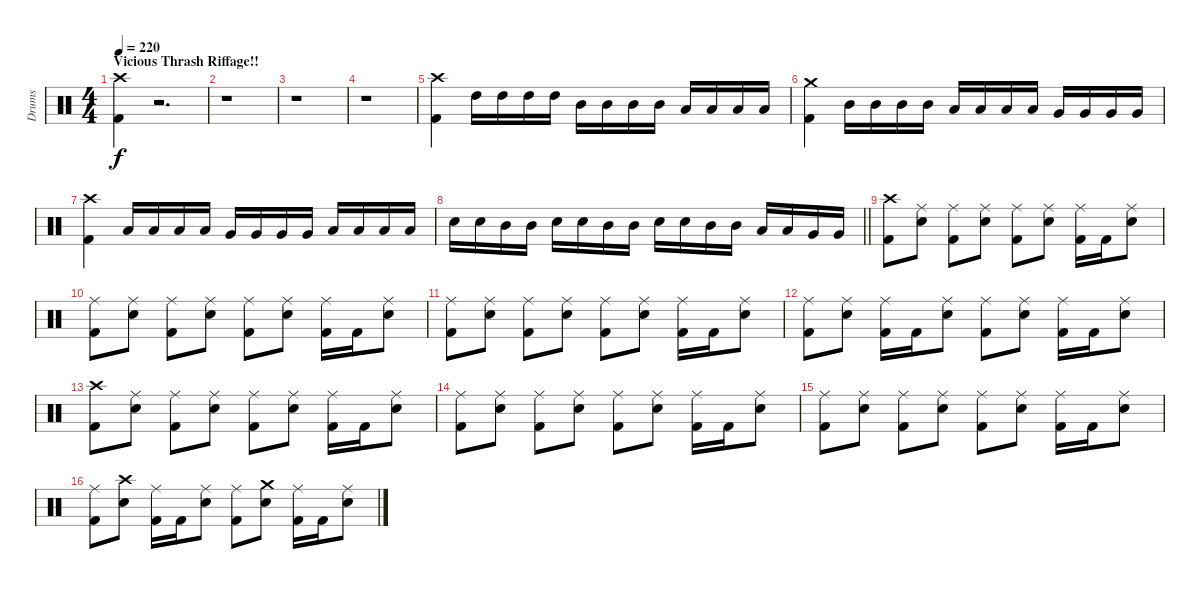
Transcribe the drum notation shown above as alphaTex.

\track ("Drums" "Drums") {instrument percussion}
\staff {score}
\articulation defaults
\ts (4 4)
\section ("" "Vicious Thrash Riffage!!")
\tempo 220
\clef neutral
\ks c
("Crash high (hit)" "Kick (hit) 2").4{dy f} r.2{d} |
r.1 |
r.1 |
r.1 |
("Crash high (hit)" "Kick (hit) 2").4 "High Tom (hit)".16 "High Tom (hit)".16 "High Tom (hit)".16 "High Tom (hit)".16 "Mid Tom (hit)".16 "Mid Tom (hit)".16 "Mid Tom (hit)".16 "Mid Tom (hit)".16 "Low Tom (hit)".16 "Low Tom (hit)".16 "Low Tom (hit)".16 "Low Tom (hit)".16 |
("Crash medium (hit)" "Kick (hit) 2").4 "Mid Tom (hit)".16 "Mid Tom (hit)".16 "Mid Tom (hit)".16 "Mid Tom (hit)".16 "Low Tom (hit)".16 "Low Tom (hit)".16 "Low Tom (hit)".16 "Low Tom (hit)".16 "Very Low Tom (hit)".16 "Very Low Tom (hit)".16 "Very Low Tom (hit)".16 "Very Low Tom (hit)".16 |
("Crash high (hit)" "Kick (hit) 2").4 "Low Tom (hit)".16 "Low Tom (hit)".16 "Low Tom (hit)".16 "Low Tom (hit)".16 "Very Low Tom (hit)".16 "Very Low Tom (hit)".16 "Very Low Tom (hit)".16 "Very Low Tom (hit)".16 "Low Floor Tom (hit)".16 "Low Floor Tom (hit)".16 "Low Floor Tom (hit)".16 "Low Floor Tom (hit)".16 |
\barLineRight lightlight "Snare (hit) 2".16 "Snare (hit) 2".16 "Mid Tom (hit)".16 "Mid Tom (hit)".16 "Snare (hit) 2".16 "Snare (hit) 2".16 "Mid Tom (hit)".16 "Mid Tom (hit)".16 "Snare (hit) 2".16 "Snare (hit) 2".16 "Mid Tom (hit)".16 "Mid Tom (hit)".16 "Low Tom (hit)".16 "Low Tom (hit)".16 "Very Low Tom (hit)".16 "Very Low Tom (hit)".16
|
\section ("" "")
("Crash high (hit)" "Kick (hit) 2").8 ("Ride (middle)" "Snare (hit) 2").8 ("Ride (middle)" "Kick (hit) 2").8 ("Ride (middle)" "Snare (hit) 2").8 ("Ride (middle)" "Kick (hit) 2").8 ("Ride (middle)" "Snare (hit) 2").8 ("Ride (middle)" "Kick (hit) 2").16 "Kick (hit) 2".16 ("Ride (middle)" "Snare (hit) 2").8 |
("Ride (middle)" "Kick (hit) 2").8 ("Ride (middle)" "Snare (hit) 2").8 ("Ride (middle)" "Kick (hit) 2").8 ("Ride (middle)" "Snare (hit) 2").8 ("Ride (middle)" "Kick (hit) 2").8 ("Ride (middle)" "Snare (hit) 2").8 ("Ride (middle)" "Kick (hit) 2").16 "Kick (hit) 2".16 ("Ride (middle)" "Snare (hit) 2").8 |
("Ride (middle)" "Kick (hit) 2").8 ("Ride (middle)" "Snare (hit) 2").8 ("Ride (middle)" "Kick (hit) 2").8 ("Ride (middle)" "Snare (hit) 2").8 ("Ride (middle)" "Kick (hit) 2").8 ("Ride (middle)" "Snare (hit) 2").8 ("Ride (middle)" "Kick (hit) 2").16 "Kick (hit) 2".16 ("Ride (middle)" "Snare (hit) 2").8 |
("Ride (middle)" "Kick (hit) 2").8 ("Ride (middle)" "Snare (hit) 2").8 ("Ride (middle)" "Kick (hit) 2").16 "Kick (hit) 2".16 ("Ride (middle)" "Snare (hit) 2").8 ("Ride (middle)" "Kick (hit) 2").8 ("Ride (middle)" "Snare (hit) 2").8 ("Ride (middle)" "Kick (hit) 2").16 "Kick (hit) 2".16 ("Ride (middle)" "Snare (hit) 2").8 |
("Crash high (hit)" "Kick (hit) 2").8 ("Ride (middle)" "Snare (hit) 2").8 ("Ride (middle)" "Kick (hit) 2").8 ("Ride (middle)" "Snare (hit) 2").8 ("Ride (middle)" "Kick (hit) 2").8 ("Ride (middle)" "Snare (hit) 2").8 ("Ride (middle)" "Kick (hit) 2").16 "Kick (hit) 2".16 ("Ride (middle)" "Snare (hit) 2").8 |
("Ride (middle)" "Kick (hit) 2").8 ("Ride (middle)" "Snare (hit) 2").8 ("Ride (middle)" "Kick (hit) 2").8 ("Ride (middle)" "Snare (hit) 2").8 ("Ride (middle)" "Kick (hit) 2").8 ("Ride (middle)" "Snare (hit) 2").8 ("Ride (middle)" "Kick (hit) 2").16 "Kick (hit) 2".16 ("Ride (middle)" "Snare (hit) 2").8 |
("Ride (middle)" "Kick (hit) 2").8 ("Ride (middle)" "Snare (hit) 2").8 ("Ride (middle)" "Kick (hit) 2").8 ("Ride (middle)" "Snare (hit) 2").8 ("Ride (middle)" "Kick (hit) 2").8 ("Ride (middle)" "Snare (hit) 2").8 ("Ride (middle)" "Kick (hit) 2").16 "Kick (hit) 2".16 ("Ride (middle)" "Snare (hit) 2").8 |
("Ride (middle)" "Kick (hit) 2").8 ("Crash high (hit)" "Snare (hit) 2").8 ("Ride (middle)" "Kick (hit) 2").16 "Kick (hit) 2".16 ("Ride (middle)" "Snare (hit) 2").8 ("Ride (middle)" "Kick (hit) 2").8 ("Crash medium (hit)" "Snare (hit) 2").8 ("Ride (middle)" "Kick (hit) 2").16 "Kick (hit) 2".16 ("Ride (middle)" "Snare (hit) 2").8
